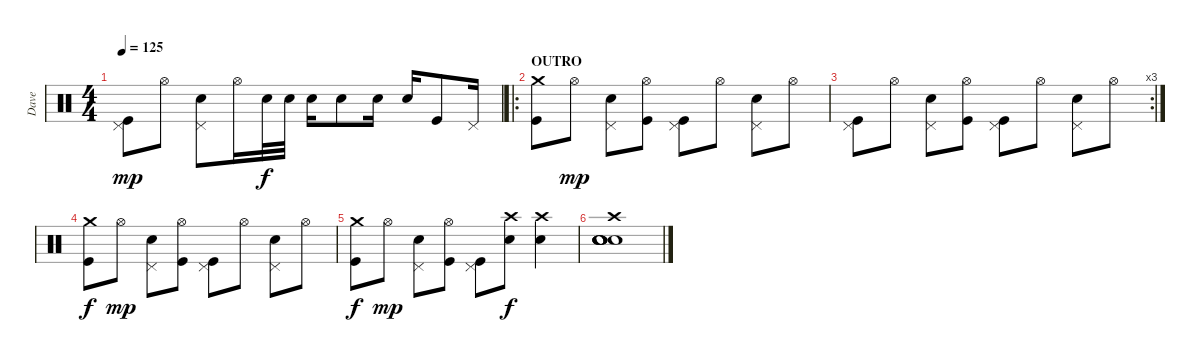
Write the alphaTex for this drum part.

\track ("Dave" "Dave") {instrument percussion}
\staff {score}
\articulation defaults
\ts (4 4)
\tempo 125
\clef neutral
\ks c
("Pedal Hi-Hat (hit)" "Kick (hit)").8{dy mp} "Hi-Hat (open)".8 ("Pedal Hi-Hat (hit)" "Snare (hit) 2").8 "Hi-Hat (open)".16 "Snare (hit) 2".32{dy f} "Snare (hit) 2".32 "Snare (hit) 2".16 "Snare (hit) 2".8 "Snare (hit) 2".16 "Snare (hit) 2".16 "Kick (hit)".8 "Pedal Hi-Hat (hit)".16 |
\ro
\section ("" "OUTRO")
("Crash medium (hit)" "Kick (hit)").8 "Hi-Hat (open)".8{dy mp} ("Pedal Hi-Hat (hit)" "Snare (hit) 2").8 ("Hi-Hat (open)" "Kick (hit)").8 ("Pedal Hi-Hat (hit)" "Kick (hit)").8 "Hi-Hat (open)".8 ("Pedal Hi-Hat (hit)" "Snare (hit) 2").8 "Hi-Hat (open)".8 |
\rc 3
("Pedal Hi-Hat (hit)" "Kick (hit)").8 "Hi-Hat (open)".8 ("Pedal Hi-Hat (hit)" "Snare (hit) 2").8 ("Hi-Hat (open)" "Kick (hit)").8 ("Pedal Hi-Hat (hit)" "Kick (hit)").8 "Hi-Hat (open)".8 ("Pedal Hi-Hat (hit)" "Snare (hit) 2").8 "Hi-Hat (open)".8 |
("Crash medium (hit)" "Kick (hit)").8{dy f} "Hi-Hat (open)".8{dy mp} ("Pedal Hi-Hat (hit)" "Snare (hit) 2").8 ("Hi-Hat (open)" "Kick (hit)").8 ("Pedal Hi-Hat (hit)" "Kick (hit)").8 "Hi-Hat (open)".8 ("Pedal Hi-Hat (hit)" "Snare (hit) 2").8 "Hi-Hat (open)".8 |
("Crash medium (hit)" "Kick (hit)").8{dy f} "Hi-Hat (open)".8{dy mp} ("Pedal Hi-Hat (hit)" "Snare (hit) 2").8 ("Hi-Hat (open)" "Kick (hit)").8 ("Pedal Hi-Hat (hit)" "Kick (hit)").8 ("Crash high (hit)" "Snare (hit) 2").8{dy f} ("Crash high (hit)" "Snare (hit) 2").4 |
("Crash high (hit)" "Snare (hit) 2" "Snare (hit) 2" "Snare (hit) 2" "Snare (hit) 2" "Snare (hit) 2").1
